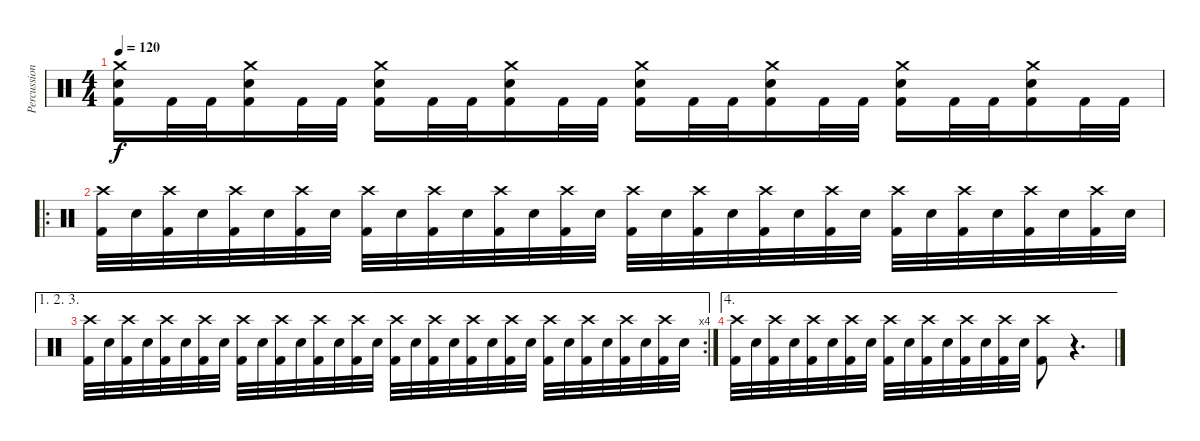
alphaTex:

\track ("Percussion" "Percussion") {instrument percussion}
\staff {score}
\articulation defaults
\ts (4 4)
\tempo 120
\clef neutral
\ks c
("Crash medium (hit)" "Electric Snare (hit)" "Kick (hit) 2").16{dy f} "Kick (hit) 2".32 "Kick (hit) 2".32 ("Crash medium (hit)" "Electric Snare (hit)" "Kick (hit) 2").16 "Kick (hit) 2".32 "Kick (hit) 2".32 ("Crash medium (hit)" "Electric Snare (hit)" "Kick (hit) 2").16 "Kick (hit) 2".32 "Kick (hit) 2".32 ("Crash medium (hit)" "Electric Snare (hit)" "Kick (hit) 2").16 "Kick (hit) 2".32 "Kick (hit) 2".32 ("Crash medium (hit)" "Electric Snare (hit)" "Kick (hit) 2").16 "Kick (hit) 2".32 "Kick (hit) 2".32 ("Crash medium (hit)" "Electric Snare (hit)" "Kick (hit) 2").16 "Kick (hit) 2".32 "Kick (hit) 2".32 ("Crash medium (hit)" "Electric Snare (hit)" "Kick (hit) 2").16 "Kick (hit) 2".32 "Kick (hit) 2".32 ("Crash medium (hit)" "Electric Snare (hit)" "Kick (hit) 2").16 "Kick (hit) 2".32 "Kick (hit) 2".32 |
\ro
("Crash high (hit)" "Kick (hit) 2").32 "Electric Snare (hit)".32 ("Crash high (hit)" "Kick (hit) 2").32 "Electric Snare (hit)".32 ("Crash high (hit)" "Kick (hit) 2").32 "Electric Snare (hit)".32 ("Crash high (hit)" "Kick (hit) 2").32 "Electric Snare (hit)".32 ("Crash high (hit)" "Kick (hit) 2").32 "Electric Snare (hit)".32 ("Crash high (hit)" "Kick (hit) 2").32 "Electric Snare (hit)".32 ("Crash high (hit)" "Kick (hit) 2").32 "Electric Snare (hit)".32 ("Crash high (hit)" "Kick (hit) 2").32 "Electric Snare (hit)".32 ("Crash high (hit)" "Kick (hit) 2").32 "Electric Snare (hit)".32 ("Crash high (hit)" "Kick (hit) 2").32 "Electric Snare (hit)".32 ("Crash high (hit)" "Kick (hit) 2").32 "Electric Snare (hit)".32 ("Crash high (hit)" "Kick (hit) 2").32 "Electric Snare (hit)".32 ("Crash high (hit)" "Kick (hit) 2").32 "Electric Snare (hit)".32 ("Crash high (hit)" "Kick (hit) 2").32 "Electric Snare (hit)".32 ("Crash high (hit)" "Kick (hit) 2").32 "Electric Snare (hit)".32 ("Crash high (hit)" "Kick (hit) 2").32 "Electric Snare (hit)".32 |
\ae (1 2 3)
\rc 4
("Crash high (hit)" "Kick (hit) 2").32 "Electric Snare (hit)".32 ("Crash high (hit)" "Kick (hit) 2").32 "Electric Snare (hit)".32 ("Crash high (hit)" "Kick (hit) 2").32 "Electric Snare (hit)".32 ("Crash high (hit)" "Kick (hit) 2").32 "Electric Snare (hit)".32 ("Crash high (hit)" "Kick (hit) 2").32 "Electric Snare (hit)".32 ("Crash high (hit)" "Kick (hit) 2").32 "Electric Snare (hit)".32 ("Crash high (hit)" "Kick (hit) 2").32 "Electric Snare (hit)".32 ("Crash high (hit)" "Kick (hit) 2").32 "Electric Snare (hit)".32 ("Crash high (hit)" "Kick (hit) 2").32 "Electric Snare (hit)".32 ("Crash high (hit)" "Kick (hit) 2").32 "Electric Snare (hit)".32 ("Crash high (hit)" "Kick (hit) 2").32 "Electric Snare (hit)".32 ("Crash high (hit)" "Kick (hit) 2").32 "Electric Snare (hit)".32 ("Crash high (hit)" "Kick (hit) 2").32 "Electric Snare (hit)".32 ("Crash high (hit)" "Kick (hit) 2").32 "Electric Snare (hit)".32 ("Crash high (hit)" "Kick (hit) 2").32 "Electric Snare (hit)".32 ("Crash high (hit)" "Kick (hit) 2").32 "Electric Snare (hit)".32 |
\ae 4
("Crash high (hit)" "Kick (hit) 2").32 "Electric Snare (hit)".32 ("Crash high (hit)" "Kick (hit) 2").32 "Electric Snare (hit)".32 ("Crash high (hit)" "Kick (hit) 2").32 "Electric Snare (hit)".32 ("Crash high (hit)" "Kick (hit) 2").32 "Electric Snare (hit)".32 ("Crash high (hit)" "Kick (hit) 2").32 "Electric Snare (hit)".32 ("Crash high (hit)" "Kick (hit) 2").32 "Electric Snare (hit)".32 ("Crash high (hit)" "Kick (hit) 2").32 "Electric Snare (hit)".32 ("Crash high (hit)" "Kick (hit) 2").32 "Electric Snare (hit)".32 ("Crash high (hit)" "Kick (hit) 2").8 r.4{d}
